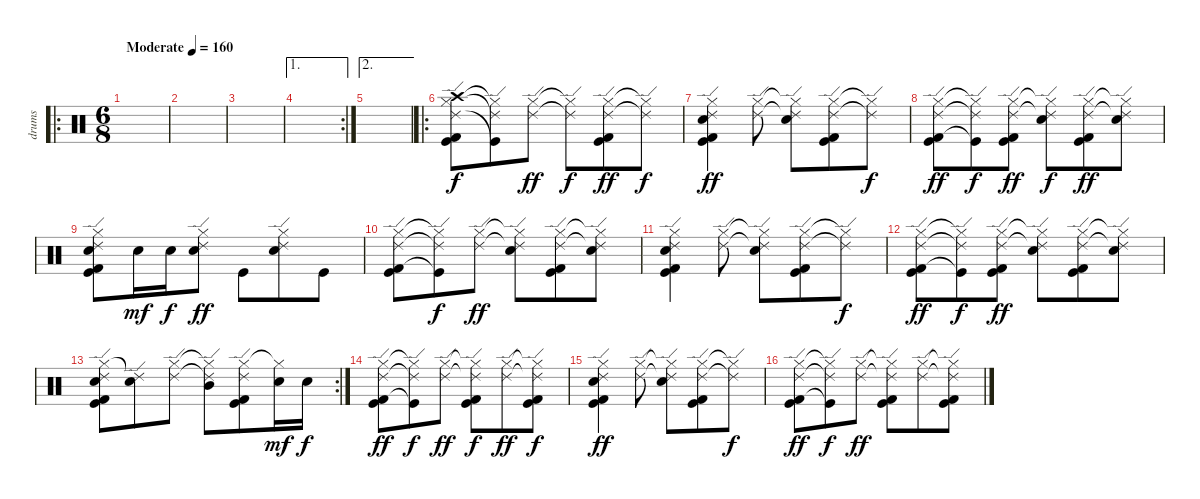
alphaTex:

\track ("drums" "drums") {instrument percussion}
\staff {score}
\articulation defaults
\ro
\ts (6 8)
\tempo (160 "Moderate")
\clef neutral
\ks c
|
|
|
\ae 1
\rc 2
|
\ae 2
|
\ro
("Crash high (hit)" "Hi-Hat (closed)" "Ride (edge) 2" "Kick (hit) 2" "Kick (hit)").8 ("Hi-Hat (closed)"{t} "Ride (edge) 2"{t} "Kick (hit)"{t}).8{dy f} ("Hi-Hat (closed)" "Ride (edge) 2").8{dy ff} ("Hi-Hat (closed)"{t} "Ride (edge) 2"{t}).8{dy f} ("Hi-Hat (closed)" "Ride (edge) 2" "Kick (hit) 2" "Kick (hit)").8{dy ff} ("Hi-Hat (closed)"{t} "Ride (edge) 2"{t}).8{dy f} |
("Hi-Hat (closed)" "Ride (edge) 2" "Snare (hit) 2" "Kick (hit) 2" "Kick (hit)").4{dy ff} ("Hi-Hat (closed)" "Ride (edge) 2").8 ("Hi-Hat (closed)"{t} "Ride (edge) 2"{t} "Electric Snare (hit)").8 ("Hi-Hat (closed)" "Ride (edge) 2" "Kick (hit) 2" "Kick (hit)").8 ("Hi-Hat (closed)"{t} "Ride (edge) 2"{t}).8{dy f} |
("Hi-Hat (closed)" "Ride (edge) 2" "Kick (hit) 2" "Kick (hit)").8{dy ff} ("Hi-Hat (closed)"{t} "Ride (edge) 2"{t} "Kick (hit)"{t}).8{dy f} ("Hi-Hat (closed)" "Ride (edge) 2" "Kick (hit) 2" "Kick (hit)").8{dy ff} ("Hi-Hat (closed)"{t} "Ride (edge) 2"{t} "Electric Snare (hit)").8{dy f} ("Hi-Hat (closed)" "Ride (edge) 2" "Kick (hit) 2" "Kick (hit)").8{dy ff} ("Hi-Hat (closed)"{t} "Ride (edge) 2"{t} "Electric Snare (hit)").8 |
("Hi-Hat (closed)" "Ride (edge) 2" "Snare (hit) 2" "Kick (hit) 2" "Kick (hit)").8 "Electric Snare (hit)".16{dy mf} "Electric Snare (hit)".16{dy f} ("Hi-Hat (closed)" "Ride (edge) 2" "Electric Snare (hit)").8{dy ff} "Kick (hit)".8 ("Hi-Hat (closed)" "Ride (edge) 2" "Electric Snare (hit)").8 "Kick (hit)".8 |
("Hi-Hat (closed)" "Ride (edge) 2" "Kick (hit) 2" "Kick (hit)").8 ("Hi-Hat (closed)"{t} "Ride (edge) 2"{t} "Kick (hit)"{t}).8{dy f} ("Hi-Hat (closed)" "Ride (edge) 2").8{dy ff} ("Hi-Hat (closed)"{t} "Ride (edge) 2"{t} "Electric Snare (hit)").8 ("Hi-Hat (closed)" "Ride (edge) 2" "Kick (hit) 2" "Kick (hit)").8 ("Hi-Hat (closed)"{t} "Ride (edge) 2"{t} "Electric Snare (hit)").8 |
("Hi-Hat (closed)" "Ride (edge) 2" "Snare (hit) 2" "Kick (hit) 2" "Kick (hit)").4 ("Hi-Hat (closed)" "Ride (edge) 2").8 ("Hi-Hat (closed)"{t} "Ride (edge) 2"{t} "Electric Snare (hit)").8 ("Hi-Hat (closed)" "Ride (edge) 2" "Kick (hit) 2" "Kick (hit)").8 ("Hi-Hat (closed)"{t} "Ride (edge) 2"{t}).8{dy f} |
("Hi-Hat (closed)" "Ride (edge) 2" "Kick (hit) 2" "Kick (hit)").8{dy ff} ("Hi-Hat (closed)"{t} "Ride (edge) 2"{t} "Kick (hit)"{t}).8{dy f} ("Hi-Hat (closed)" "Ride (edge) 2" "Kick (hit) 2" "Kick (hit)").8{dy ff} ("Hi-Hat (closed)"{t} "Ride (edge) 2"{t} "Electric Snare (hit)").8 ("Hi-Hat (closed)" "Ride (edge) 2" "Kick (hit) 2" "Kick (hit)").8 ("Hi-Hat (closed)"{t} "Ride (edge) 2"{t} "Electric Snare (hit)").8 |
\rc 2
("Hi-Hat (closed)" "Ride (edge) 2" "Snare (hit) 2" "Kick (hit) 2" "Kick (hit)").8 ("Ride (edge) 2"{t} "Electric Snare (hit)").8 ("Hi-Hat (closed)" "Ride (edge) 2").8 ("Hi-Hat (closed)"{t} "Ride (edge) 2"{t} "Mid Tom (hit)").8 ("Hi-Hat (closed)" "Ride (edge) 2" "Kick (hit) 2" "Kick (hit)").8 ("Hi-Hat (closed)"{t} "Electric Snare (hit)").16{dy mf} "Electric Snare (hit)".16{dy f} |
("Hi-Hat (closed)" "Ride (edge) 2" "Kick (hit) 2" "Kick (hit)").8{dy ff} ("Hi-Hat (closed)"{t} "Ride (edge) 2"{t} "Kick (hit)"{t}).8{dy f} ("Hi-Hat (closed)" "Ride (edge) 2").8{dy ff} ("Hi-Hat (closed)"{t} "Ride (edge) 2"{t} "Kick (hit) 2" "Kick (hit)").8{dy f} ("Hi-Hat (closed)" "Ride (edge) 2").8{dy ff} ("Hi-Hat (closed)"{t} "Ride (edge) 2"{t} "Kick (hit) 2" "Kick (hit)").8{dy f} |
("Hi-Hat (closed)" "Ride (edge) 2" "Snare (hit) 2" "Kick (hit) 2" "Kick (hit)").4{dy ff} ("Hi-Hat (closed)" "Ride (edge) 2").8 ("Hi-Hat (closed)"{t} "Ride (edge) 2"{t} "Electric Snare (hit)").8 ("Hi-Hat (closed)" "Ride (edge) 2" "Kick (hit) 2" "Kick (hit)").8 ("Hi-Hat (closed)"{t} "Ride (edge) 2"{t}).8{dy f} |
("Hi-Hat (closed)" "Ride (edge) 2" "Kick (hit) 2" "Kick (hit)").8{dy ff} ("Hi-Hat (closed)"{t} "Ride (edge) 2"{t} "Kick (hit)"{t}).8{dy f} ("Hi-Hat (closed)" "Ride (edge) 2").8{dy ff} ("Hi-Hat (closed)"{t} "Ride (edge) 2"{t} "Kick (hit) 2" "Kick (hit)").8 ("Hi-Hat (closed)" "Ride (edge) 2").8 ("Hi-Hat (closed)"{t} "Ride (edge) 2"{t} "Kick (hit) 2" "Kick (hit)").8
